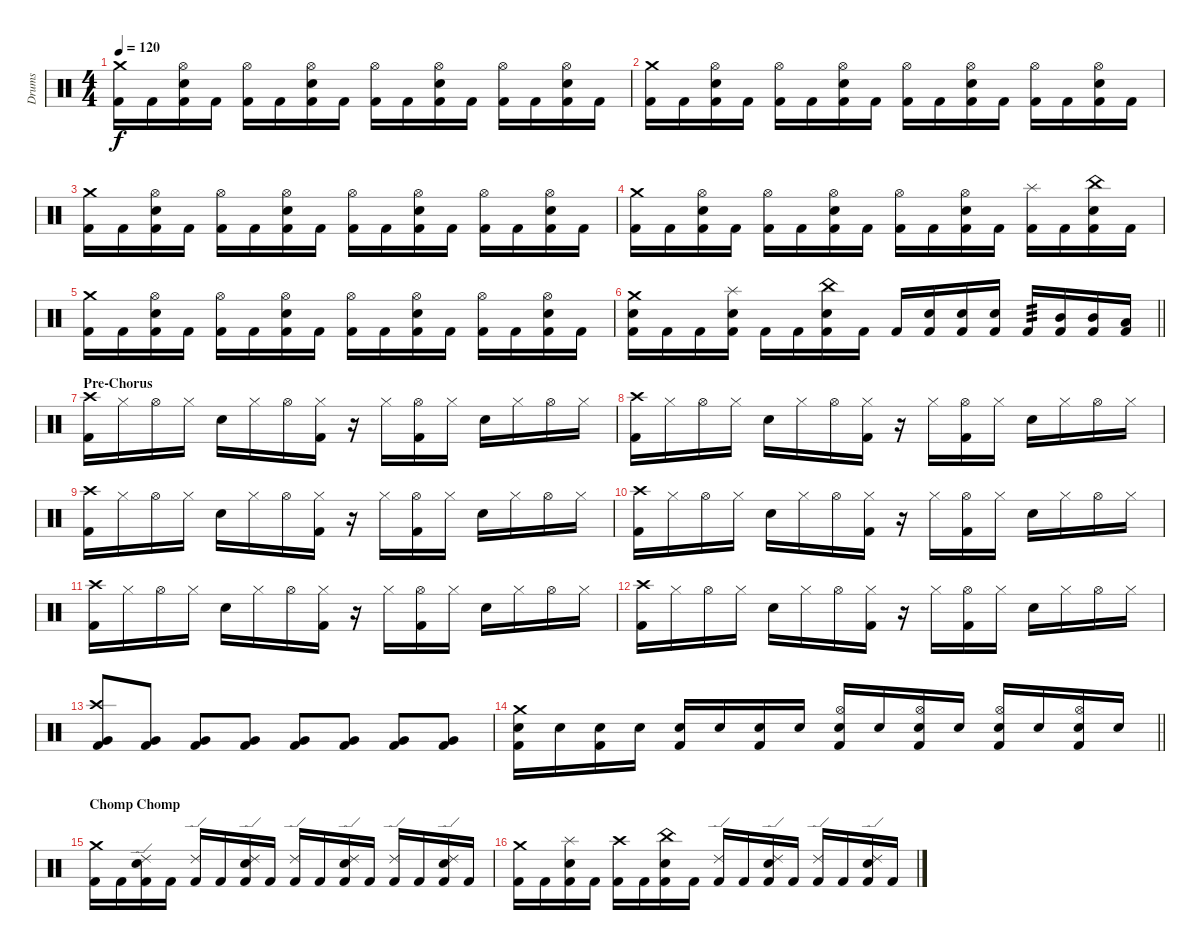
\track ("Drums" "Drums") {instrument percussion}
\staff {score}
\articulation defaults
\ts (4 4)
\tempo 120
\clef neutral
\ks c
("Crash medium (hit)" "Kick (hit) 2").16{dy f} "Kick (hit) 2".16 ("Hi-Hat (open)" "Snare (hit) 2" "Kick (hit) 2").16 "Kick (hit) 2".16 ("Hi-Hat (open)" "Kick (hit) 2").16 "Kick (hit) 2".16 ("Hi-Hat (open)" "Snare (hit) 2" "Kick (hit) 2").16 "Kick (hit) 2".16 ("Hi-Hat (open)" "Kick (hit) 2").16 "Kick (hit) 2".16 ("Hi-Hat (open)" "Snare (hit) 2" "Kick (hit) 2").16 "Kick (hit) 2".16 ("Hi-Hat (open)" "Kick (hit) 2").16 "Kick (hit) 2".16 ("Hi-Hat (open)" "Snare (hit) 2" "Kick (hit) 2").16 "Kick (hit) 2".16 |
("Crash medium (hit)" "Kick (hit) 2").16 "Kick (hit) 2".16 ("Hi-Hat (open)" "Snare (hit) 2" "Kick (hit) 2").16 "Kick (hit) 2".16 ("Hi-Hat (open)" "Kick (hit) 2").16 "Kick (hit) 2".16 ("Hi-Hat (open)" "Snare (hit) 2" "Kick (hit) 2").16 "Kick (hit) 2".16 ("Hi-Hat (open)" "Kick (hit) 2").16 "Kick (hit) 2".16 ("Hi-Hat (open)" "Snare (hit) 2" "Kick (hit) 2").16 "Kick (hit) 2".16 ("Hi-Hat (open)" "Kick (hit) 2").16 "Kick (hit) 2".16 ("Hi-Hat (open)" "Snare (hit) 2" "Kick (hit) 2").16 "Kick (hit) 2".16 |
("Crash medium (hit)" "Kick (hit) 2").16 "Kick (hit) 2".16 ("Hi-Hat (open)" "Snare (hit) 2" "Kick (hit) 2").16 "Kick (hit) 2".16 ("Hi-Hat (open)" "Kick (hit) 2").16 "Kick (hit) 2".16 ("Hi-Hat (open)" "Snare (hit) 2" "Kick (hit) 2").16 "Kick (hit) 2".16 ("Hi-Hat (open)" "Kick (hit) 2").16 "Kick (hit) 2".16 ("Hi-Hat (open)" "Snare (hit) 2" "Kick (hit) 2").16 "Kick (hit) 2".16 ("Hi-Hat (open)" "Kick (hit) 2").16 "Kick (hit) 2".16 ("Hi-Hat (open)" "Snare (hit) 2" "Kick (hit) 2").16 "Kick (hit) 2".16 |
("Crash medium (hit)" "Kick (hit) 2").16 "Kick (hit) 2".16 ("Hi-Hat (open)" "Snare (hit) 2" "Kick (hit) 2").16 "Kick (hit) 2".16 ("Hi-Hat (open)" "Kick (hit) 2").16 "Kick (hit) 2".16 ("Hi-Hat (open)" "Snare (hit) 2" "Kick (hit) 2").16 "Kick (hit) 2".16 ("Hi-Hat (open)" "Kick (hit) 2").16 "Kick (hit) 2".16 ("Hi-Hat (open)" "Snare (hit) 2" "Kick (hit) 2").16 "Kick (hit) 2".16 ("Splash (hit)" "Kick (hit) 2").16 "Kick (hit) 2".16 ("China (hit)" "Snare (hit) 2" "Kick (hit) 2").16 "Kick (hit) 2".16 |
("Crash medium (hit)" "Kick (hit) 2").16 "Kick (hit) 2".16 ("Hi-Hat (open)" "Snare (hit) 2" "Kick (hit) 2").16 "Kick (hit) 2".16 ("Hi-Hat (open)" "Kick (hit) 2").16 "Kick (hit) 2".16 ("Hi-Hat (open)" "Snare (hit) 2" "Kick (hit) 2").16 "Kick (hit) 2".16 ("Hi-Hat (open)" "Kick (hit) 2").16 "Kick (hit) 2".16 ("Hi-Hat (open)" "Snare (hit) 2" "Kick (hit) 2").16 "Kick (hit) 2".16 ("Hi-Hat (open)" "Kick (hit) 2").16 "Kick (hit) 2".16 ("Hi-Hat (open)" "Snare (hit) 2" "Kick (hit) 2").16 "Kick (hit) 2".16 |
\barLineRight lightlight
("Crash medium (hit)" "Snare (hit) 2" "Kick (hit) 2").16 "Kick (hit) 2".16 "Kick (hit) 2".16 ("Splash (hit)" "Snare (hit) 2" "Kick (hit) 2").16 "Kick (hit) 2".16 "Kick (hit) 2".16 ("China (hit)" "Snare (hit) 2" "Kick (hit) 2").16 "Kick (hit) 2".16 "Kick (hit) 2".16 ("Snare (hit) 2" "Kick (hit) 2").16 ("Snare (hit) 2" "Kick (hit) 2").16 ("Snare (hit) 2" "Kick (hit) 2").16 "Kick (hit) 2".16{tp 3} ("Mid Tom (hit)" "Kick (hit) 2").16 ("Mid Tom (hit)" "Kick (hit) 2").16 ("Low Tom (hit)" "Kick (hit) 2").16 |
\section ("" "Pre-Chorus")
("Crash high (hit)" "Kick (hit) 2").16 "Hi-Hat (closed)".16 "Hi-Hat (open)".16 "Hi-Hat (closed)".16 "Snare (hit) 2".16 "Hi-Hat (closed)".16 "Hi-Hat (open)".16 ("Hi-Hat (closed)" "Kick (hit) 2").16 r.16 "Hi-Hat (closed)".16 ("Hi-Hat (open)" "Kick (hit) 2").16 "Hi-Hat (closed)".16 "Snare (hit) 2".16 "Hi-Hat (closed)".16 "Hi-Hat (open)".16 "Hi-Hat (closed)".16 |
("Crash high (hit)" "Kick (hit) 2").16 "Hi-Hat (closed)".16 "Hi-Hat (open)".16 "Hi-Hat (closed)".16 "Snare (hit) 2".16 "Hi-Hat (closed)".16 "Hi-Hat (open)".16 ("Hi-Hat (closed)" "Kick (hit) 2").16 r.16 "Hi-Hat (closed)".16 ("Hi-Hat (open)" "Kick (hit) 2").16 "Hi-Hat (closed)".16 "Snare (hit) 2".16 "Hi-Hat (closed)".16 "Hi-Hat (open)".16 "Hi-Hat (closed)".16 |
("Crash high (hit)" "Kick (hit) 2").16 "Hi-Hat (closed)".16 "Hi-Hat (open)".16 "Hi-Hat (closed)".16 "Snare (hit) 2".16 "Hi-Hat (closed)".16 "Hi-Hat (open)".16 ("Hi-Hat (closed)" "Kick (hit) 2").16 r.16 "Hi-Hat (closed)".16 ("Hi-Hat (open)" "Kick (hit) 2").16 "Hi-Hat (closed)".16 "Snare (hit) 2".16 "Hi-Hat (closed)".16 "Hi-Hat (open)".16 "Hi-Hat (closed)".16 |
("Crash high (hit)" "Kick (hit) 2").16 "Hi-Hat (closed)".16 "Hi-Hat (open)".16 "Hi-Hat (closed)".16 "Snare (hit) 2".16 "Hi-Hat (closed)".16 "Hi-Hat (open)".16 ("Hi-Hat (closed)" "Kick (hit) 2").16 r.16 "Hi-Hat (closed)".16 ("Hi-Hat (open)" "Kick (hit) 2").16 "Hi-Hat (closed)".16 "Snare (hit) 2".16 "Hi-Hat (closed)".16 "Hi-Hat (open)".16 "Hi-Hat (closed)".16 |
("Crash high (hit)" "Kick (hit) 2").16 "Hi-Hat (closed)".16 "Hi-Hat (open)".16 "Hi-Hat (closed)".16 "Snare (hit) 2".16 "Hi-Hat (closed)".16 "Hi-Hat (open)".16 ("Hi-Hat (closed)" "Kick (hit) 2").16 r.16 "Hi-Hat (closed)".16 ("Hi-Hat (open)" "Kick (hit) 2").16 "Hi-Hat (closed)".16 "Snare (hit) 2".16 "Hi-Hat (closed)".16 "Hi-Hat (open)".16 "Hi-Hat (closed)".16 |
("Crash high (hit)" "Kick (hit) 2").16 "Hi-Hat (closed)".16 "Hi-Hat (open)".16 "Hi-Hat (closed)".16 "Snare (hit) 2".16 "Hi-Hat (closed)".16 "Hi-Hat (open)".16 ("Hi-Hat (closed)" "Kick (hit) 2").16 r.16 "Hi-Hat (closed)".16 ("Hi-Hat (open)" "Kick (hit) 2").16 "Hi-Hat (closed)".16 "Snare (hit) 2".16 "Hi-Hat (closed)".16 "Hi-Hat (open)".16 "Hi-Hat (closed)".16 |
("Crash high (hit)" "Very Low Tom (hit)" "Kick (hit) 2").8 ("Very Low Tom (hit)" "Kick (hit) 2").8 ("Very Low Tom (hit)" "Kick (hit) 2").8 ("Very Low Tom (hit)" "Kick (hit) 2").8 ("Very Low Tom (hit)" "Kick (hit) 2").8 ("Very Low Tom (hit)" "Kick (hit) 2").8 ("Very Low Tom (hit)" "Kick (hit) 2").8 ("Very Low Tom (hit)" "Kick (hit) 2").8 |
\barLineRight lightlight
("Crash medium (hit)" "Snare (hit) 2" "Kick (hit) 2").16 "Snare (hit) 2".16 ("Snare (hit) 2" "Kick (hit) 2").16 "Snare (hit) 2".16 ("Snare (hit) 2" "Kick (hit) 2").16 "Snare (hit) 2".16 ("Snare (hit) 2" "Kick (hit) 2").16 "Snare (hit) 2".16 ("Hi-Hat (open)" "Snare (hit) 2" "Kick (hit) 2").16 "Snare (hit) 2".16 ("Hi-Hat (open)" "Snare (hit) 2" "Kick (hit) 2").16 "Snare (hit) 2".16 ("Hi-Hat (open)" "Snare (hit) 2" "Kick (hit) 2").16 "Snare (hit) 2".16 ("Hi-Hat (open)" "Snare (hit) 2" "Kick (hit) 2").16 "Snare (hit) 2".16 |
\section ("" "Chomp Chomp")
("Crash medium (hit)" "Kick (hit) 2").16 "Kick (hit) 2".16 ("Ride (edge) 2" "Snare (hit) 2" "Kick (hit) 2").16 "Kick (hit) 2".16 ("Ride (edge) 2" "Kick (hit) 2").16 "Kick (hit) 2".16 ("Ride (edge) 2" "Snare (hit) 2" "Kick (hit) 2").16 "Kick (hit) 2".16 ("Ride (edge) 2" "Kick (hit) 2").16 "Kick (hit) 2".16 ("Ride (edge) 2" "Snare (hit) 2" "Kick (hit) 2").16 "Kick (hit) 2".16 ("Ride (edge) 2" "Kick (hit) 2").16 "Kick (hit) 2".16 ("Ride (edge) 2" "Snare (hit) 2" "Kick (hit) 2").16 "Kick (hit) 2".16 |
("Crash medium (hit)" "Kick (hit) 2").16 "Kick (hit) 2".16 ("Splash (hit)" "Snare (hit) 2" "Kick (hit) 2").16 "Kick (hit) 2".16 ("Crash high (hit)" "Kick (hit) 2").16 "Kick (hit) 2".16 ("China (hit)" "Snare (hit) 2" "Kick (hit) 2").16 "Kick (hit) 2".16 ("Ride (edge) 2" "Kick (hit) 2").16 "Kick (hit) 2".16 ("Ride (edge) 2" "Snare (hit) 2" "Kick (hit) 2").16 "Kick (hit) 2".16 ("Ride (edge) 2" "Kick (hit) 2").16 "Kick (hit) 2".16 ("Ride (edge) 2" "Snare (hit) 2" "Kick (hit) 2").16 "Kick (hit) 2".16
